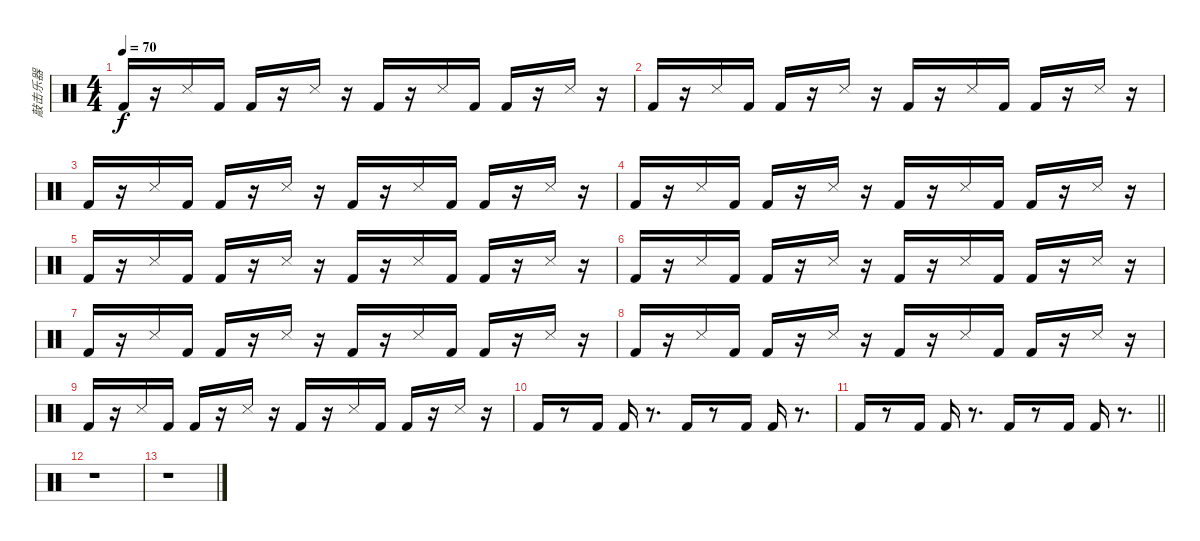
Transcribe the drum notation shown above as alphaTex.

\track ("敲击乐器" "敲击乐器") {instrument percussion}
\staff {score}
\articulation defaults
\ts (4 4)
\tempo 70
\clef neutral
\ks c "Kick (hit) 2".16{dy f}
r.16 "Snare (side stick) 3".16 "Kick (hit) 2".16 "Kick (hit) 2".16 r.16 "Snare (side stick) 3".16 r.16 "Kick (hit) 2".16 r.16 "Snare (side stick) 3".16 "Kick (hit) 2".16 "Kick (hit) 2".16 r.16 "Snare (side stick) 3".16 r.16 |
"Kick (hit) 2".16 r.16 "Snare (side stick) 3".16 "Kick (hit) 2".16 "Kick (hit) 2".16 r.16 "Snare (side stick) 3".16 r.16 "Kick (hit) 2".16 r.16 "Snare (side stick) 3".16 "Kick (hit) 2".16 "Kick (hit) 2".16 r.16 "Snare (side stick) 3".16 r.16 |
"Kick (hit) 2".16 r.16 "Snare (side stick) 3".16 "Kick (hit) 2".16 "Kick (hit) 2".16 r.16 "Snare (side stick) 3".16 r.16 "Kick (hit) 2".16 r.16 "Snare (side stick) 3".16 "Kick (hit) 2".16 "Kick (hit) 2".16 r.16 "Snare (side stick) 3".16 r.16 |
"Kick (hit) 2".16 r.16 "Snare (side stick) 3".16 "Kick (hit) 2".16 "Kick (hit) 2".16 r.16 "Snare (side stick) 3".16 r.16 "Kick (hit) 2".16 r.16 "Snare (side stick) 3".16 "Kick (hit) 2".16 "Kick (hit) 2".16 r.16 "Snare (side stick) 3".16 r.16 |
"Kick (hit) 2".16 r.16 "Snare (side stick) 3".16 "Kick (hit) 2".16 "Kick (hit) 2".16 r.16 "Snare (side stick) 3".16 r.16 "Kick (hit) 2".16 r.16 "Snare (side stick) 3".16 "Kick (hit) 2".16 "Kick (hit) 2".16 r.16 "Snare (side stick) 3".16 r.16 |
"Kick (hit) 2".16 r.16 "Snare (side stick) 3".16 "Kick (hit) 2".16 "Kick (hit) 2".16 r.16 "Snare (side stick) 3".16 r.16 "Kick (hit) 2".16 r.16 "Snare (side stick) 3".16 "Kick (hit) 2".16 "Kick (hit) 2".16 r.16 "Snare (side stick) 3".16 r.16 |
"Kick (hit) 2".16 r.16 "Snare (side stick) 3".16 "Kick (hit) 2".16 "Kick (hit) 2".16 r.16 "Snare (side stick) 3".16 r.16 "Kick (hit) 2".16 r.16 "Snare (side stick) 3".16 "Kick (hit) 2".16 "Kick (hit) 2".16 r.16 "Snare (side stick) 3".16 r.16 |
"Kick (hit) 2".16 r.16 "Snare (side stick) 3".16 "Kick (hit) 2".16 "Kick (hit) 2".16 r.16 "Snare (side stick) 3".16 r.16 "Kick (hit) 2".16 r.16 "Snare (side stick) 3".16 "Kick (hit) 2".16 "Kick (hit) 2".16 r.16 "Snare (side stick) 3".16 r.16 |
"Kick (hit) 2".16 r.16 "Snare (side stick) 3".16 "Kick (hit) 2".16 "Kick (hit) 2".16 r.16 "Snare (side stick) 3".16 r.16 "Kick (hit) 2".16 r.16 "Snare (side stick) 3".16 "Kick (hit) 2".16 "Kick (hit) 2".16 r.16 "Snare (side stick) 3".16 r.16 |
"Kick (hit) 2".16 r.8 "Kick (hit) 2".16 "Kick (hit) 2".16 r.8{d} "Kick (hit) 2".16 r.8 "Kick (hit) 2".16 "Kick (hit) 2".16 r.8{d} |
\barLineRight lightlight "Kick (hit) 2".16
r.8 "Kick (hit) 2".16 "Kick (hit) 2".16 r.8{d} "Kick (hit) 2".16 r.8 "Kick (hit) 2".16 "Kick (hit) 2".16 r.8{d} |
r.1 |
r.1
